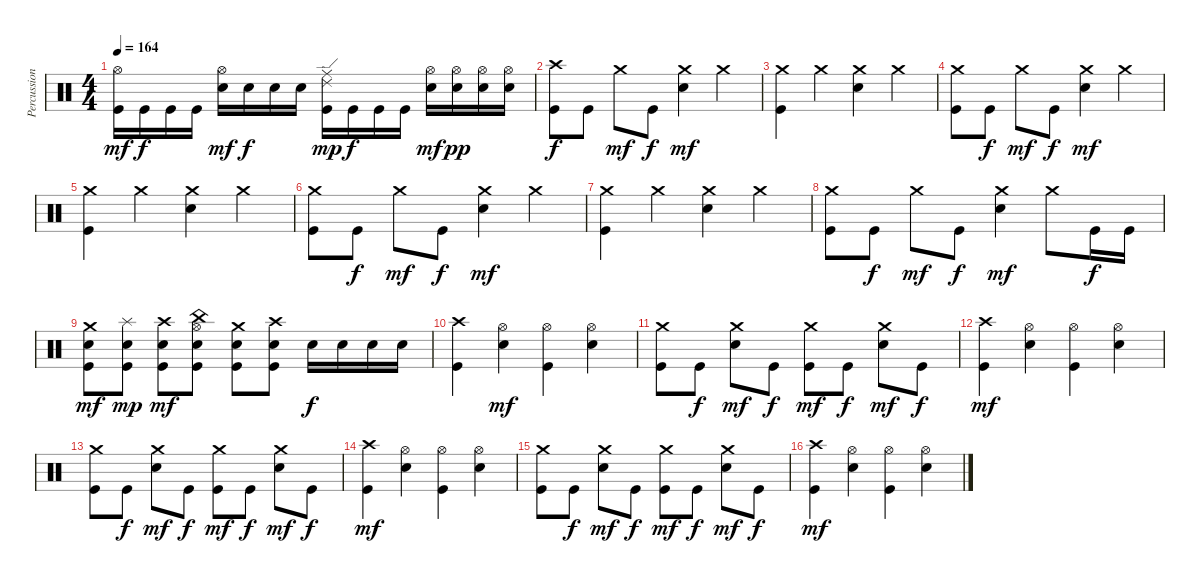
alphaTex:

\track ("Percussion" "Percussion") {instrument percussion}
\staff {score}
\articulation defaults
\ts (4 4)
\tempo 164
\clef neutral
\ks c
("Kick (hit)" "Hi-Hat (open)").16{dy mf} "Kick (hit)".16{dy f} "Kick (hit)".16 "Kick (hit)".16 ("Electric Snare (hit)" "Hi-Hat (open)").16{dy mf} "Electric Snare (hit)".16{dy f} "Electric Snare (hit)".16 "Electric Snare (hit)".16 ("Kick (hit)" "Ride (edge) 2" "Ride (middle)").16{dy mp} "Kick (hit)".16{dy f} "Kick (hit)".16 "Kick (hit)".16 ("Electric Snare (hit)" "Hi-Hat (open)").16{dy mf} ("Electric Snare (hit)" "Hi-Hat (open)").16{dy pp} ("Electric Snare (hit)" "Hi-Hat (open)").16 ("Electric Snare (hit)" "Hi-Hat (open)").16 |
("Kick (hit)" "Crash high (hit)").8{dy f} "Kick (hit)".8 "Crash medium (hit)".8{dy mf} "Kick (hit)".8{dy f} ("Electric Snare (hit)" "Crash medium (hit)").4{dy mf} "Crash medium (hit)".4 |
("Kick (hit)" "Crash medium (hit)").4 "Crash medium (hit)".4 ("Electric Snare (hit)" "Crash medium (hit)").4 "Crash medium (hit)".4 |
("Kick (hit)" "Crash medium (hit)").8 "Kick (hit)".8{dy f} "Crash medium (hit)".8{dy mf} "Kick (hit)".8{dy f} ("Electric Snare (hit)" "Crash medium (hit)").4{dy mf} "Crash medium (hit)".4 |
("Kick (hit)" "Crash medium (hit)").4 "Crash medium (hit)".4 ("Electric Snare (hit)" "Crash medium (hit)").4 "Crash medium (hit)".4 |
("Kick (hit)" "Crash medium (hit)").8 "Kick (hit)".8{dy f} "Crash medium (hit)".8{dy mf} "Kick (hit)".8{dy f} ("Electric Snare (hit)" "Crash medium (hit)").4{dy mf} "Crash medium (hit)".4 |
("Kick (hit)" "Crash medium (hit)").4 "Crash medium (hit)".4 ("Electric Snare (hit)" "Crash medium (hit)").4 "Crash medium (hit)".4 |
("Kick (hit)" "Crash medium (hit)").8 "Kick (hit)".8{dy f} "Crash medium (hit)".8{dy mf} "Kick (hit)".8{dy f} ("Electric Snare (hit)" "Crash medium (hit)").4{dy mf} "Crash medium (hit)".8 "Kick (hit)".16{dy f} "Kick (hit)".16 |
("Kick (hit)" "Electric Snare (hit)" "Crash medium (hit)").8{dy mf} ("Kick (hit)" "Electric Snare (hit)" "Splash (hit)").8{dy mp} ("Kick (hit)" "Electric Snare (hit)" "Crash high (hit)").8{dy mf} ("Kick (hit)" "Electric Snare (hit)" "Hi-Hat (open)" "China (hit)").8 ("Kick (hit)" "Electric Snare (hit)" "Crash medium (hit)").8 ("Kick (hit)" "Electric Snare (hit)" "Crash high (hit)").8 "Electric Snare (hit)".16{dy f} "Electric Snare (hit)".16 "Electric Snare (hit)".16 "Electric Snare (hit)".16 |
("Kick (hit)" "Crash high (hit)").4 ("Electric Snare (hit)" "Hi-Hat (open)").4{dy mf} ("Kick (hit)" "Hi-Hat (open)").4 ("Electric Snare (hit)" "Hi-Hat (open)").4 |
("Kick (hit)" "Crash medium (hit)").8 "Kick (hit)".8{dy f} ("Electric Snare (hit)" "Crash medium (hit)").8{dy mf} "Kick (hit)".8{dy f} ("Kick (hit)" "Crash medium (hit)").8{dy mf} "Kick (hit)".8{dy f} ("Electric Snare (hit)" "Crash medium (hit)").8{dy mf} "Kick (hit)".8{dy f} |
("Kick (hit)" "Crash high (hit)").4{dy mf} ("Electric Snare (hit)" "Hi-Hat (open)").4 ("Kick (hit)" "Hi-Hat (open)").4 ("Electric Snare (hit)" "Hi-Hat (open)").4 |
("Kick (hit)" "Crash medium (hit)").8 "Kick (hit)".8{dy f} ("Electric Snare (hit)" "Crash medium (hit)").8{dy mf} "Kick (hit)".8{dy f} ("Kick (hit)" "Crash medium (hit)").8{dy mf} "Kick (hit)".8{dy f} ("Electric Snare (hit)" "Crash medium (hit)").8{dy mf} "Kick (hit)".8{dy f} |
("Kick (hit)" "Crash high (hit)").4{dy mf} ("Electric Snare (hit)" "Hi-Hat (open)").4 ("Kick (hit)" "Hi-Hat (open)").4 ("Electric Snare (hit)" "Hi-Hat (open)").4 |
("Kick (hit)" "Crash medium (hit)").8 "Kick (hit)".8{dy f} ("Electric Snare (hit)" "Crash medium (hit)").8{dy mf} "Kick (hit)".8{dy f} ("Kick (hit)" "Crash medium (hit)").8{dy mf} "Kick (hit)".8{dy f} ("Electric Snare (hit)" "Crash medium (hit)").8{dy mf} "Kick (hit)".8{dy f} |
("Kick (hit)" "Crash high (hit)").4{dy mf} ("Electric Snare (hit)" "Hi-Hat (open)").4 ("Kick (hit)" "Hi-Hat (open)").4 ("Electric Snare (hit)" "Hi-Hat (open)").4
